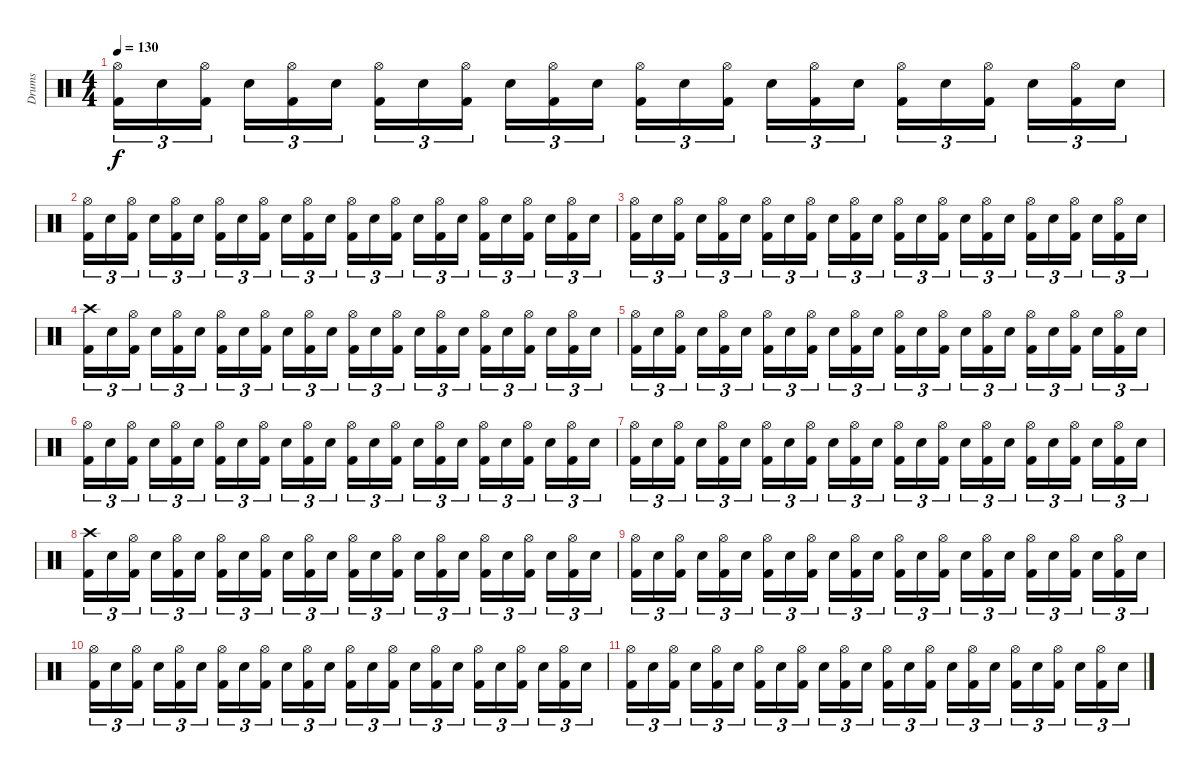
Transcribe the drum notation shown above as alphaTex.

\track ("Drums" "Drums") {instrument percussion}
\staff {score}
\articulation defaults
\ts (4 4)
\tempo 130
\clef neutral
\ks c
("Hi-Hat (open)" "Kick (hit) 2").16{tu (3 2) dy f} "Electric Snare (hit)".16{tu (3 2)} ("Hi-Hat (open)" "Kick (hit) 2").16{tu (3 2)} "Electric Snare (hit)".16{tu (3 2)} ("Hi-Hat (open)" "Kick (hit) 2").16{tu (3 2)} "Electric Snare (hit)".16{tu (3 2)} ("Hi-Hat (open)" "Kick (hit) 2").16{tu (3 2)} "Electric Snare (hit)".16{tu (3 2)} ("Hi-Hat (open)" "Kick (hit) 2").16{tu (3 2)} "Electric Snare (hit)".16{tu (3 2)} ("Hi-Hat (open)" "Kick (hit) 2").16{tu (3 2)} "Electric Snare (hit)".16{tu (3 2)} ("Hi-Hat (open)" "Kick (hit) 2").16{tu (3 2)} "Electric Snare (hit)".16{tu (3 2)} ("Hi-Hat (open)" "Kick (hit) 2").16{tu (3 2)} "Electric Snare (hit)".16{tu (3 2)} ("Hi-Hat (open)" "Kick (hit) 2").16{tu (3 2)} "Electric Snare (hit)".16{tu (3 2)} ("Hi-Hat (open)" "Kick (hit) 2").16{tu (3 2)} "Electric Snare (hit)".16{tu (3 2)} ("Hi-Hat (open)" "Kick (hit) 2").16{tu (3 2)} "Electric Snare (hit)".16{tu (3 2)} ("Hi-Hat (open)" "Kick (hit) 2").16{tu (3 2)} "Electric Snare (hit)".16{tu (3 2)} |
("Hi-Hat (open)" "Kick (hit) 2").16{tu (3 2)} "Electric Snare (hit)".16{tu (3 2)} ("Hi-Hat (open)" "Kick (hit) 2").16{tu (3 2)} "Electric Snare (hit)".16{tu (3 2)} ("Hi-Hat (open)" "Kick (hit) 2").16{tu (3 2)} "Electric Snare (hit)".16{tu (3 2)} ("Hi-Hat (open)" "Kick (hit) 2").16{tu (3 2)} "Electric Snare (hit)".16{tu (3 2)} ("Hi-Hat (open)" "Kick (hit) 2").16{tu (3 2)} "Electric Snare (hit)".16{tu (3 2)} ("Hi-Hat (open)" "Kick (hit) 2").16{tu (3 2)} "Electric Snare (hit)".16{tu (3 2)} ("Hi-Hat (open)" "Kick (hit) 2").16{tu (3 2)} "Electric Snare (hit)".16{tu (3 2)} ("Hi-Hat (open)" "Kick (hit) 2").16{tu (3 2)} "Electric Snare (hit)".16{tu (3 2)} ("Hi-Hat (open)" "Kick (hit) 2").16{tu (3 2)} "Electric Snare (hit)".16{tu (3 2)} ("Hi-Hat (open)" "Kick (hit) 2").16{tu (3 2)} "Electric Snare (hit)".16{tu (3 2)} ("Hi-Hat (open)" "Kick (hit) 2").16{tu (3 2)} "Electric Snare (hit)".16{tu (3 2)} ("Hi-Hat (open)" "Kick (hit) 2").16{tu (3 2)} "Electric Snare (hit)".16{tu (3 2)} |
("Hi-Hat (open)" "Kick (hit) 2").16{tu (3 2)} "Electric Snare (hit)".16{tu (3 2)} ("Hi-Hat (open)" "Kick (hit) 2").16{tu (3 2)} "Electric Snare (hit)".16{tu (3 2)} ("Hi-Hat (open)" "Kick (hit) 2").16{tu (3 2)} "Electric Snare (hit)".16{tu (3 2)} ("Hi-Hat (open)" "Kick (hit) 2").16{tu (3 2)} "Electric Snare (hit)".16{tu (3 2)} ("Hi-Hat (open)" "Kick (hit) 2").16{tu (3 2)} "Electric Snare (hit)".16{tu (3 2)} ("Hi-Hat (open)" "Kick (hit) 2").16{tu (3 2)} "Electric Snare (hit)".16{tu (3 2)} ("Hi-Hat (open)" "Kick (hit) 2").16{tu (3 2)} "Electric Snare (hit)".16{tu (3 2)} ("Hi-Hat (open)" "Kick (hit) 2").16{tu (3 2)} "Electric Snare (hit)".16{tu (3 2)} ("Hi-Hat (open)" "Kick (hit) 2").16{tu (3 2)} "Electric Snare (hit)".16{tu (3 2)} ("Hi-Hat (open)" "Kick (hit) 2").16{tu (3 2)} "Electric Snare (hit)".16{tu (3 2)} ("Hi-Hat (open)" "Kick (hit) 2").16{tu (3 2)} "Electric Snare (hit)".16{tu (3 2)} ("Hi-Hat (open)" "Kick (hit) 2").16{tu (3 2)} "Electric Snare (hit)".16{tu (3 2)} |
("Crash high (hit)" "Kick (hit) 2").16{tu (3 2)} "Electric Snare (hit)".16{tu (3 2)} ("Hi-Hat (open)" "Kick (hit) 2").16{tu (3 2)} "Electric Snare (hit)".16{tu (3 2)} ("Hi-Hat (open)" "Kick (hit) 2").16{tu (3 2)} "Electric Snare (hit)".16{tu (3 2)} ("Hi-Hat (open)" "Kick (hit) 2").16{tu (3 2)} "Electric Snare (hit)".16{tu (3 2)} ("Hi-Hat (open)" "Kick (hit) 2").16{tu (3 2)} "Electric Snare (hit)".16{tu (3 2)} ("Hi-Hat (open)" "Kick (hit) 2").16{tu (3 2)} "Electric Snare (hit)".16{tu (3 2)} ("Hi-Hat (open)" "Kick (hit) 2").16{tu (3 2)} "Electric Snare (hit)".16{tu (3 2)} ("Hi-Hat (open)" "Kick (hit) 2").16{tu (3 2)} "Electric Snare (hit)".16{tu (3 2)} ("Hi-Hat (open)" "Kick (hit) 2").16{tu (3 2)} "Electric Snare (hit)".16{tu (3 2)} ("Hi-Hat (open)" "Kick (hit) 2").16{tu (3 2)} "Electric Snare (hit)".16{tu (3 2)} ("Hi-Hat (open)" "Kick (hit) 2").16{tu (3 2)} "Electric Snare (hit)".16{tu (3 2)} ("Hi-Hat (open)" "Kick (hit) 2").16{tu (3 2)} "Electric Snare (hit)".16{tu (3 2)} |
("Hi-Hat (open)" "Kick (hit) 2").16{tu (3 2)} "Electric Snare (hit)".16{tu (3 2)} ("Hi-Hat (open)" "Kick (hit) 2").16{tu (3 2)} "Electric Snare (hit)".16{tu (3 2)} ("Hi-Hat (open)" "Kick (hit) 2").16{tu (3 2)} "Electric Snare (hit)".16{tu (3 2)} ("Hi-Hat (open)" "Kick (hit) 2").16{tu (3 2)} "Electric Snare (hit)".16{tu (3 2)} ("Hi-Hat (open)" "Kick (hit) 2").16{tu (3 2)} "Electric Snare (hit)".16{tu (3 2)} ("Hi-Hat (open)" "Kick (hit) 2").16{tu (3 2)} "Electric Snare (hit)".16{tu (3 2)} ("Hi-Hat (open)" "Kick (hit) 2").16{tu (3 2)} "Electric Snare (hit)".16{tu (3 2)} ("Hi-Hat (open)" "Kick (hit) 2").16{tu (3 2)} "Electric Snare (hit)".16{tu (3 2)} ("Hi-Hat (open)" "Kick (hit) 2").16{tu (3 2)} "Electric Snare (hit)".16{tu (3 2)} ("Hi-Hat (open)" "Kick (hit) 2").16{tu (3 2)} "Electric Snare (hit)".16{tu (3 2)} ("Hi-Hat (open)" "Kick (hit) 2").16{tu (3 2)} "Electric Snare (hit)".16{tu (3 2)} ("Hi-Hat (open)" "Kick (hit) 2").16{tu (3 2)} "Electric Snare (hit)".16{tu (3 2)} |
("Hi-Hat (open)" "Kick (hit) 2").16{tu (3 2)} "Electric Snare (hit)".16{tu (3 2)} ("Hi-Hat (open)" "Kick (hit) 2").16{tu (3 2)} "Electric Snare (hit)".16{tu (3 2)} ("Hi-Hat (open)" "Kick (hit) 2").16{tu (3 2)} "Electric Snare (hit)".16{tu (3 2)} ("Hi-Hat (open)" "Kick (hit) 2").16{tu (3 2)} "Electric Snare (hit)".16{tu (3 2)} ("Hi-Hat (open)" "Kick (hit) 2").16{tu (3 2)} "Electric Snare (hit)".16{tu (3 2)} ("Hi-Hat (open)" "Kick (hit) 2").16{tu (3 2)} "Electric Snare (hit)".16{tu (3 2)} ("Hi-Hat (open)" "Kick (hit) 2").16{tu (3 2)} "Electric Snare (hit)".16{tu (3 2)} ("Hi-Hat (open)" "Kick (hit) 2").16{tu (3 2)} "Electric Snare (hit)".16{tu (3 2)} ("Hi-Hat (open)" "Kick (hit) 2").16{tu (3 2)} "Electric Snare (hit)".16{tu (3 2)} ("Hi-Hat (open)" "Kick (hit) 2").16{tu (3 2)} "Electric Snare (hit)".16{tu (3 2)} ("Hi-Hat (open)" "Kick (hit) 2").16{tu (3 2)} "Electric Snare (hit)".16{tu (3 2)} ("Hi-Hat (open)" "Kick (hit) 2").16{tu (3 2)} "Electric Snare (hit)".16{tu (3 2)} |
("Hi-Hat (open)" "Kick (hit) 2").16{tu (3 2)} "Electric Snare (hit)".16{tu (3 2)} ("Hi-Hat (open)" "Kick (hit) 2").16{tu (3 2)} "Electric Snare (hit)".16{tu (3 2)} ("Hi-Hat (open)" "Kick (hit) 2").16{tu (3 2)} "Electric Snare (hit)".16{tu (3 2)} ("Hi-Hat (open)" "Kick (hit) 2").16{tu (3 2)} "Electric Snare (hit)".16{tu (3 2)} ("Hi-Hat (open)" "Kick (hit) 2").16{tu (3 2)} "Electric Snare (hit)".16{tu (3 2)} ("Hi-Hat (open)" "Kick (hit) 2").16{tu (3 2)} "Electric Snare (hit)".16{tu (3 2)} ("Hi-Hat (open)" "Kick (hit) 2").16{tu (3 2)} "Electric Snare (hit)".16{tu (3 2)} ("Hi-Hat (open)" "Kick (hit) 2").16{tu (3 2)} "Electric Snare (hit)".16{tu (3 2)} ("Hi-Hat (open)" "Kick (hit) 2").16{tu (3 2)} "Electric Snare (hit)".16{tu (3 2)} ("Hi-Hat (open)" "Kick (hit) 2").16{tu (3 2)} "Electric Snare (hit)".16{tu (3 2)} ("Hi-Hat (open)" "Kick (hit) 2").16{tu (3 2)} "Electric Snare (hit)".16{tu (3 2)} ("Hi-Hat (open)" "Kick (hit) 2").16{tu (3 2)} "Electric Snare (hit)".16{tu (3 2)} |
("Crash high (hit)" "Kick (hit) 2").16{tu (3 2)} "Electric Snare (hit)".16{tu (3 2)} ("Hi-Hat (open)" "Kick (hit) 2").16{tu (3 2)} "Electric Snare (hit)".16{tu (3 2)} ("Hi-Hat (open)" "Kick (hit) 2").16{tu (3 2)} "Electric Snare (hit)".16{tu (3 2)} ("Hi-Hat (open)" "Kick (hit) 2").16{tu (3 2)} "Electric Snare (hit)".16{tu (3 2)} ("Hi-Hat (open)" "Kick (hit) 2").16{tu (3 2)} "Electric Snare (hit)".16{tu (3 2)} ("Hi-Hat (open)" "Kick (hit) 2").16{tu (3 2)} "Electric Snare (hit)".16{tu (3 2)} ("Hi-Hat (open)" "Kick (hit) 2").16{tu (3 2)} "Electric Snare (hit)".16{tu (3 2)} ("Hi-Hat (open)" "Kick (hit) 2").16{tu (3 2)} "Electric Snare (hit)".16{tu (3 2)} ("Hi-Hat (open)" "Kick (hit) 2").16{tu (3 2)} "Electric Snare (hit)".16{tu (3 2)} ("Hi-Hat (open)" "Kick (hit) 2").16{tu (3 2)} "Electric Snare (hit)".16{tu (3 2)} ("Hi-Hat (open)" "Kick (hit) 2").16{tu (3 2)} "Electric Snare (hit)".16{tu (3 2)} ("Hi-Hat (open)" "Kick (hit) 2").16{tu (3 2)} "Electric Snare (hit)".16{tu (3 2)} |
("Hi-Hat (open)" "Kick (hit) 2").16{tu (3 2)} "Electric Snare (hit)".16{tu (3 2)} ("Hi-Hat (open)" "Kick (hit) 2").16{tu (3 2)} "Electric Snare (hit)".16{tu (3 2)} ("Hi-Hat (open)" "Kick (hit) 2").16{tu (3 2)} "Electric Snare (hit)".16{tu (3 2)} ("Hi-Hat (open)" "Kick (hit) 2").16{tu (3 2)} "Electric Snare (hit)".16{tu (3 2)} ("Hi-Hat (open)" "Kick (hit) 2").16{tu (3 2)} "Electric Snare (hit)".16{tu (3 2)} ("Hi-Hat (open)" "Kick (hit) 2").16{tu (3 2)} "Electric Snare (hit)".16{tu (3 2)} ("Hi-Hat (open)" "Kick (hit) 2").16{tu (3 2)} "Electric Snare (hit)".16{tu (3 2)} ("Hi-Hat (open)" "Kick (hit) 2").16{tu (3 2)} "Electric Snare (hit)".16{tu (3 2)} ("Hi-Hat (open)" "Kick (hit) 2").16{tu (3 2)} "Electric Snare (hit)".16{tu (3 2)} ("Hi-Hat (open)" "Kick (hit) 2").16{tu (3 2)} "Electric Snare (hit)".16{tu (3 2)} ("Hi-Hat (open)" "Kick (hit) 2").16{tu (3 2)} "Electric Snare (hit)".16{tu (3 2)} ("Hi-Hat (open)" "Kick (hit) 2").16{tu (3 2)} "Electric Snare (hit)".16{tu (3 2)} |
("Hi-Hat (open)" "Kick (hit) 2").16{tu (3 2)} "Electric Snare (hit)".16{tu (3 2)} ("Hi-Hat (open)" "Kick (hit) 2").16{tu (3 2)} "Electric Snare (hit)".16{tu (3 2)} ("Hi-Hat (open)" "Kick (hit) 2").16{tu (3 2)} "Electric Snare (hit)".16{tu (3 2)} ("Hi-Hat (open)" "Kick (hit) 2").16{tu (3 2)} "Electric Snare (hit)".16{tu (3 2)} ("Hi-Hat (open)" "Kick (hit) 2").16{tu (3 2)} "Electric Snare (hit)".16{tu (3 2)} ("Hi-Hat (open)" "Kick (hit) 2").16{tu (3 2)} "Electric Snare (hit)".16{tu (3 2)} ("Hi-Hat (open)" "Kick (hit) 2").16{tu (3 2)} "Electric Snare (hit)".16{tu (3 2)} ("Hi-Hat (open)" "Kick (hit) 2").16{tu (3 2)} "Electric Snare (hit)".16{tu (3 2)} ("Hi-Hat (open)" "Kick (hit) 2").16{tu (3 2)} "Electric Snare (hit)".16{tu (3 2)} ("Hi-Hat (open)" "Kick (hit) 2").16{tu (3 2)} "Electric Snare (hit)".16{tu (3 2)} ("Hi-Hat (open)" "Kick (hit) 2").16{tu (3 2)} "Electric Snare (hit)".16{tu (3 2)} ("Hi-Hat (open)" "Kick (hit) 2").16{tu (3 2)} "Electric Snare (hit)".16{tu (3 2)} |
("Hi-Hat (open)" "Kick (hit) 2").16{tu (3 2)} "Electric Snare (hit)".16{tu (3 2)} ("Hi-Hat (open)" "Kick (hit) 2").16{tu (3 2)} "Electric Snare (hit)".16{tu (3 2)} ("Hi-Hat (open)" "Kick (hit) 2").16{tu (3 2)} "Electric Snare (hit)".16{tu (3 2)} ("Hi-Hat (open)" "Kick (hit) 2").16{tu (3 2)} "Electric Snare (hit)".16{tu (3 2)} ("Hi-Hat (open)" "Kick (hit) 2").16{tu (3 2)} "Electric Snare (hit)".16{tu (3 2)} ("Hi-Hat (open)" "Kick (hit) 2").16{tu (3 2)} "Electric Snare (hit)".16{tu (3 2)} ("Hi-Hat (open)" "Kick (hit) 2").16{tu (3 2)} "Electric Snare (hit)".16{tu (3 2)} ("Hi-Hat (open)" "Kick (hit) 2").16{tu (3 2)} "Electric Snare (hit)".16{tu (3 2)} ("Hi-Hat (open)" "Kick (hit) 2").16{tu (3 2)} "Electric Snare (hit)".16{tu (3 2)} ("Hi-Hat (open)" "Kick (hit) 2").16{tu (3 2)} "Electric Snare (hit)".16{tu (3 2)} ("Hi-Hat (open)" "Kick (hit) 2").16{tu (3 2)} "Electric Snare (hit)".16{tu (3 2)} ("Hi-Hat (open)" "Kick (hit) 2").16{tu (3 2)} "Electric Snare (hit)".16{tu (3 2)}
